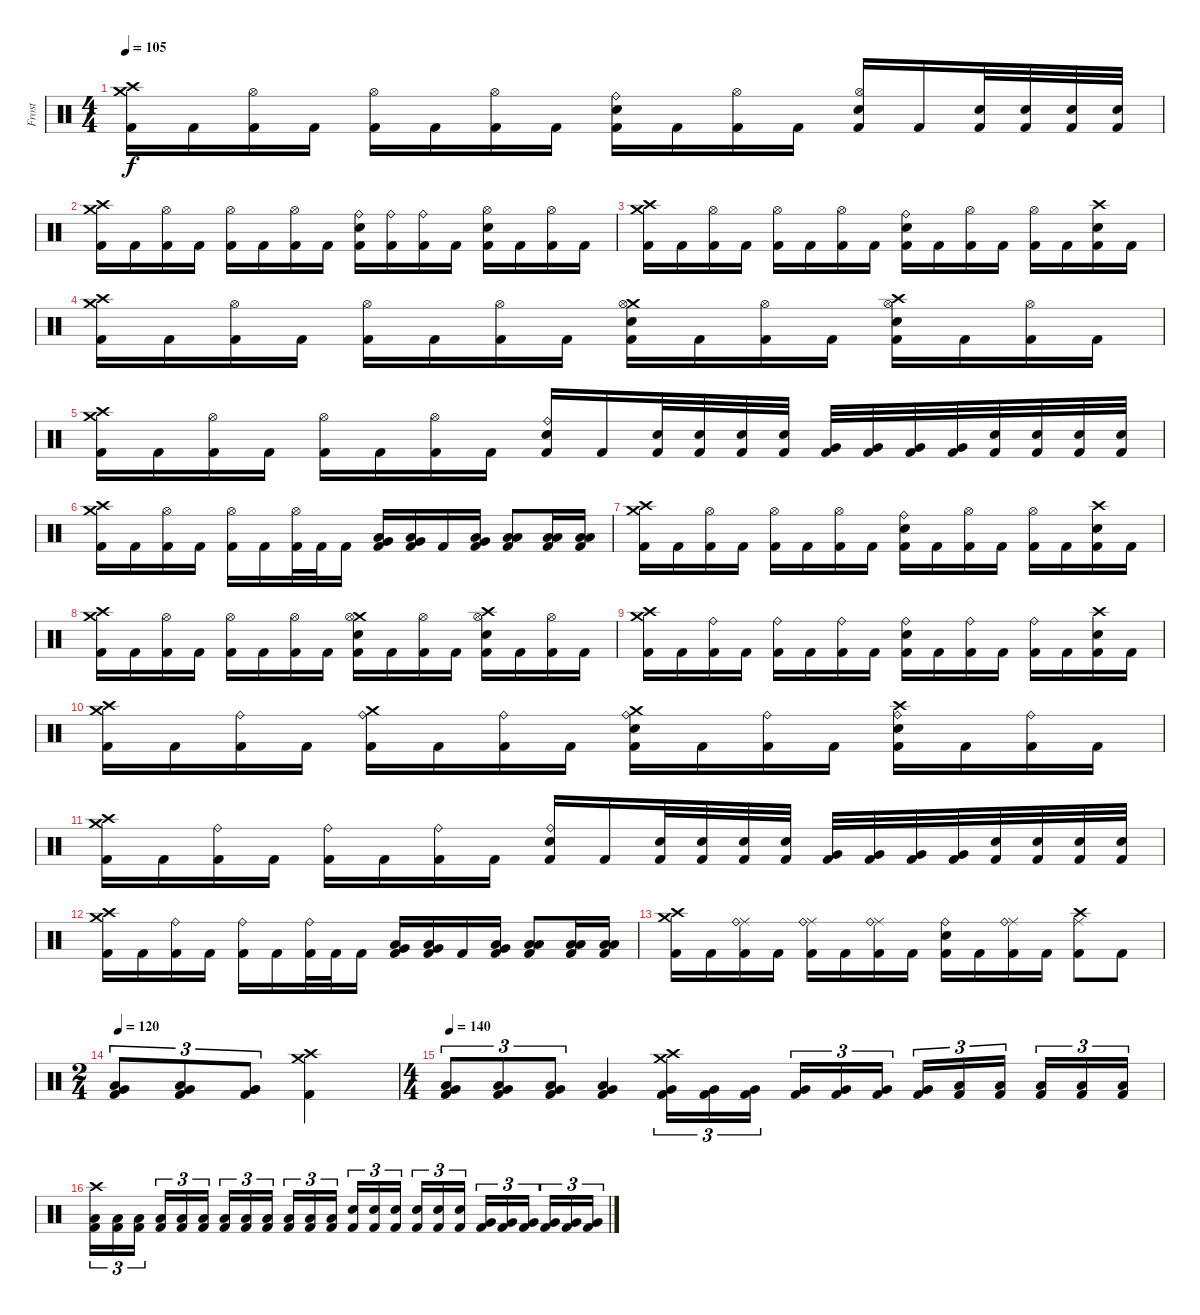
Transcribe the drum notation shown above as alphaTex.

\track ("Frost" "Frost") {instrument percussion}
\staff {score}
\articulation defaults
\ts (4 4)
\tempo 105
\clef neutral
\ks c
("Crash medium (hit)" "Crash high (hit)" "Kick (hit) 2").16{dy f} "Kick (hit) 2".16 ("Hi-Hat (open)" "Kick (hit) 2").16 "Kick (hit) 2".16 ("Hi-Hat (open)" "Kick (hit) 2").16 "Kick (hit) 2".16 ("Hi-Hat (open)" "Kick (hit) 2").16 "Kick (hit) 2".16 ("Ride (bell)" "Snare (hit) 2" "Kick (hit) 2").16 "Kick (hit) 2".16 ("Hi-Hat (open)" "Kick (hit) 2").16 "Kick (hit) 2".16 ("Hi-Hat (open)" "Snare (hit) 2" "Kick (hit) 2").16 "Kick (hit) 2".16 ("Snare (hit) 2" "Kick (hit) 2").32 ("Snare (hit) 2" "Kick (hit) 2").32 ("Snare (hit) 2" "Kick (hit) 2").32 ("Snare (hit) 2" "Kick (hit) 2").32 |
("Crash medium (hit)" "Crash high (hit)" "Kick (hit) 2").16 "Kick (hit) 2".16 ("Hi-Hat (open)" "Kick (hit) 2").16 "Kick (hit) 2".16 ("Hi-Hat (open)" "Kick (hit) 2").16 "Kick (hit) 2".16 ("Hi-Hat (open)" "Kick (hit) 2").16 "Kick (hit) 2".16 ("Ride (bell)" "Snare (hit) 2" "Kick (hit) 2").16 ("Ride (bell)" "Kick (hit) 2").16 ("Ride (bell)" "Kick (hit) 2").16 "Kick (hit) 2".16 ("Hi-Hat (open)" "Snare (hit) 2" "Kick (hit) 2").16 "Kick (hit) 2".16 ("Hi-Hat (open)" "Kick (hit) 2").16 "Kick (hit) 2".16 |
("Crash medium (hit)" "Crash high (hit)" "Kick (hit) 2").16 "Kick (hit) 2".16 ("Hi-Hat (open)" "Kick (hit) 2").16 "Kick (hit) 2".16 ("Hi-Hat (open)" "Kick (hit) 2").16 "Kick (hit) 2".16 ("Hi-Hat (open)" "Kick (hit) 2").16 "Kick (hit) 2".16 ("Ride (bell)" "Snare (hit) 2" "Kick (hit) 2").16 "Kick (hit) 2".16 ("Hi-Hat (open)" "Kick (hit) 2").16 "Kick (hit) 2".16 ("Hi-Hat (open)" "Kick (hit) 2").16 "Kick (hit) 2".16 ("Crash high (hit)" "Snare (hit) 2" "Kick (hit) 2").16 "Kick (hit) 2".16 |
("Crash medium (hit)" "Crash high (hit)" "Kick (hit) 2").16 "Kick (hit) 2".16 ("Hi-Hat (open)" "Kick (hit) 2").16 "Kick (hit) 2".16 ("Hi-Hat (open)" "Kick (hit) 2").16 "Kick (hit) 2".16 ("Hi-Hat (open)" "Kick (hit) 2").16 "Kick (hit) 2".16 ("Crash medium (hit)" "Hi-Hat (open)" "Snare (hit) 2" "Kick (hit) 2").16 "Kick (hit) 2".16 ("Hi-Hat (open)" "Kick (hit) 2").16 "Kick (hit) 2".16 ("Crash high (hit)" "Hi-Hat (open)" "Snare (hit) 2" "Kick (hit) 2").16 "Kick (hit) 2".16 ("Hi-Hat (open)" "Kick (hit) 2").16 "Kick (hit) 2".16 |
("Crash medium (hit)" "Crash high (hit)" "Kick (hit) 2").16 "Kick (hit) 2".16 ("Hi-Hat (open)" "Kick (hit) 2").16 "Kick (hit) 2".16 ("Hi-Hat (open)" "Kick (hit) 2").16 "Kick (hit) 2".16 ("Hi-Hat (open)" "Kick (hit) 2").16 "Kick (hit) 2".16 ("Ride (bell)" "Snare (hit) 2" "Kick (hit) 2").16 "Kick (hit) 2".16 ("Snare (hit) 2" "Kick (hit) 2").32 ("Snare (hit) 2" "Kick (hit) 2").32 ("Snare (hit) 2" "Kick (hit) 2").32 ("Snare (hit) 2" "Kick (hit) 2").32 ("Very Low Tom (hit)" "Kick (hit) 2").32 ("Very Low Tom (hit)" "Kick (hit) 2").32 ("Very Low Tom (hit)" "Kick (hit) 2").32 ("Very Low Tom (hit)" "Kick (hit) 2").32 ("Snare (hit) 2" "Kick (hit) 2").32 ("Snare (hit) 2" "Kick (hit) 2").32 ("Snare (hit) 2" "Kick (hit) 2").32 ("Snare (hit) 2" "Kick (hit) 2").32 |
("Crash medium (hit)" "Crash high (hit)" "Kick (hit) 2").16 "Kick (hit) 2".16 ("Hi-Hat (open)" "Kick (hit) 2").16 "Kick (hit) 2".16 ("Hi-Hat (open)" "Kick (hit) 2").16 "Kick (hit) 2".16 ("Hi-Hat (open)" "Kick (hit) 2").32 "Kick (hit) 2".32 "Kick (hit) 2".16 ("Very Low Tom (hit)" "Low Tom (hit)" "Kick (hit) 2").16 ("Very Low Tom (hit)" "Low Tom (hit)" "Kick (hit) 2").16 "Kick (hit) 2".16 ("Very Low Tom (hit)" "Low Floor Tom (hit)" "Kick (hit) 2").16 ("Low Floor Tom (hit)" "Low Floor Tom (hit)" "Kick (hit) 2").8 ("Low Floor Tom (hit)" "Low Floor Tom (hit)" "Kick (hit) 2").16 ("Low Floor Tom (hit)" "Low Floor Tom (hit)" "Kick (hit) 2").16 |
("Crash medium (hit)" "Crash high (hit)" "Kick (hit) 2").16 "Kick (hit) 2".16 ("Hi-Hat (open)" "Kick (hit) 2").16 "Kick (hit) 2".16 ("Hi-Hat (open)" "Kick (hit) 2").16 "Kick (hit) 2".16 ("Hi-Hat (open)" "Kick (hit) 2").16 "Kick (hit) 2".16 ("Ride (bell)" "Snare (hit) 2" "Kick (hit) 2").16 "Kick (hit) 2".16 ("Hi-Hat (open)" "Kick (hit) 2").16 "Kick (hit) 2".16 ("Hi-Hat (open)" "Kick (hit) 2").16 "Kick (hit) 2".16 ("Crash high (hit)" "Snare (hit) 2" "Kick (hit) 2").16 "Kick (hit) 2".16 |
("Crash medium (hit)" "Crash high (hit)" "Kick (hit) 2").16 "Kick (hit) 2".16 ("Hi-Hat (open)" "Kick (hit) 2").16 "Kick (hit) 2".16 ("Hi-Hat (open)" "Kick (hit) 2").16 "Kick (hit) 2".16 ("Hi-Hat (open)" "Kick (hit) 2").16 "Kick (hit) 2".16 ("Crash medium (hit)" "Hi-Hat (open)" "Snare (hit) 2" "Kick (hit) 2").16 "Kick (hit) 2".16 ("Hi-Hat (open)" "Kick (hit) 2").16 "Kick (hit) 2".16 ("Crash high (hit)" "Hi-Hat (open)" "Snare (hit) 2" "Kick (hit) 2").16 "Kick (hit) 2".16 ("Hi-Hat (open)" "Kick (hit) 2").16 "Kick (hit) 2".16 |
("Crash medium (hit)" "Crash high (hit)" "Kick (hit) 2").16 "Kick (hit) 2".16 ("Ride (bell)" "Kick (hit) 2").16 "Kick (hit) 2".16 ("Ride (bell)" "Kick (hit) 2").16 "Kick (hit) 2".16 ("Ride (bell)" "Kick (hit) 2").16 "Kick (hit) 2".16 ("Ride (bell)" "Snare (hit) 2" "Kick (hit) 2").16 "Kick (hit) 2".16 ("Ride (bell)" "Kick (hit) 2").16 "Kick (hit) 2".16 ("Ride (bell)" "Kick (hit) 2").16 "Kick (hit) 2".16 ("Crash high (hit)" "Snare (hit) 2" "Kick (hit) 2").16 "Kick (hit) 2".16 |
("Crash medium (hit)" "Crash high (hit)" "Kick (hit) 2").16 "Kick (hit) 2".16 ("Ride (bell)" "Kick (hit) 2").16 "Kick (hit) 2".16 ("Crash medium (hit)" "Ride (bell)" "Kick (hit) 2").16 "Kick (hit) 2".16 ("Ride (bell)" "Kick (hit) 2").16 "Kick (hit) 2".16 ("Crash medium (hit)" "Ride (bell)" "Snare (hit) 2" "Kick (hit) 2").16 "Kick (hit) 2".16 ("Ride (bell)" "Kick (hit) 2").16 "Kick (hit) 2".16 ("Crash high (hit)" "Ride (bell)" "Snare (hit) 2" "Kick (hit) 2").16 "Kick (hit) 2".16 ("Ride (bell)" "Kick (hit) 2").16 "Kick (hit) 2".16 |
("Crash medium (hit)" "Crash high (hit)" "Kick (hit) 2").16 "Kick (hit) 2".16 ("Ride (bell)" "Kick (hit) 2").16 "Kick (hit) 2".16 ("Ride (bell)" "Kick (hit) 2").16 "Kick (hit) 2".16 ("Ride (bell)" "Kick (hit) 2").16 "Kick (hit) 2".16 ("Ride (bell)" "Snare (hit) 2" "Kick (hit) 2").16 "Kick (hit) 2".16 ("Snare (hit) 2" "Kick (hit) 2").32 ("Snare (hit) 2" "Kick (hit) 2").32 ("Snare (hit) 2" "Kick (hit) 2").32 ("Snare (hit) 2" "Kick (hit) 2").32 ("Very Low Tom (hit)" "Kick (hit) 2").32 ("Very Low Tom (hit)" "Kick (hit) 2").32 ("Very Low Tom (hit)" "Kick (hit) 2").32 ("Very Low Tom (hit)" "Kick (hit) 2").32 ("Snare (hit) 2" "Kick (hit) 2").32 ("Snare (hit) 2" "Kick (hit) 2").32 ("Snare (hit) 2" "Kick (hit) 2").32 ("Snare (hit) 2" "Kick (hit) 2").32 |
("Crash medium (hit)" "Crash high (hit)" "Kick (hit) 2").16 "Kick (hit) 2".16 ("Ride (bell)" "Kick (hit) 2").16 "Kick (hit) 2".16 ("Ride (bell)" "Kick (hit) 2").16 "Kick (hit) 2".16 ("Ride (bell)" "Kick (hit) 2").32 "Kick (hit) 2".32 "Kick (hit) 2".16 ("Very Low Tom (hit)" "Low Tom (hit)" "Kick (hit) 2").16 ("Very Low Tom (hit)" "Low Tom (hit)" "Kick (hit) 2").16 "Kick (hit) 2".16 ("Very Low Tom (hit)" "Low Floor Tom (hit)" "Kick (hit) 2").16 ("Low Floor Tom (hit)" "Low Floor Tom (hit)" "Kick (hit) 2").8 ("Low Floor Tom (hit)" "Low Floor Tom (hit)" "Kick (hit) 2").16 ("Low Floor Tom (hit)" "Low Floor Tom (hit)" "Kick (hit) 2").16 |
("Crash medium (hit)" "Crash high (hit)" "Kick (hit) 2").16 "Kick (hit) 2".16 ("Ride (middle)" "Ride (bell)" "Kick (hit) 2").16 "Kick (hit) 2".16 ("Ride (middle)" "Ride (bell)" "Kick (hit) 2").16 "Kick (hit) 2".16 ("Ride (middle)" "Ride (bell)" "Kick (hit) 2").16 "Kick (hit) 2".16 ("Ride (bell)" "Snare (hit) 2" "Kick (hit) 2").16 "Kick (hit) 2".16 ("Ride (middle)" "Ride (bell)" "Kick (hit) 2").16 "Kick (hit) 2".16 ("Crash high (hit)" "Ride (middle)" "Kick (hit) 2").8 "Kick (hit) 2".8 |
\ts (2 4)
\tempo 120
("Very Low Tom (hit)" "Low Tom (hit)" "Kick (hit) 2").8{tu (3 2)} ("Very Low Tom (hit)" "Low Tom (hit)" "Kick (hit) 2").8{tu (3 2)} ("Very Low Tom (hit)" "Very Low Tom (hit)" "Kick (hit) 2").8{tu (3 2)} ("Crash high (hit)" "Crash medium (hit)" "Kick (hit) 2").4 |
\ts (4 4)
\tempo 140
("Very Low Tom (hit)" "Low Tom (hit)" "Kick (hit) 2").8{tu (3 2)} ("Very Low Tom (hit)" "Low Tom (hit)" "Kick (hit) 2").8{tu (3 2)} ("Low Floor Tom (hit)" "Very Low Tom (hit)" "Kick (hit) 2").8{tu (3 2)} ("Low Floor Tom (hit)" "Very Low Tom (hit)" "Kick (hit) 2").4 ("Crash high (hit)" "Crash medium (hit)" "Very Low Tom (hit)" "Kick (hit) 2").16{tu (3 2)} ("Very Low Tom (hit)" "Kick (hit) 2").16{tu (3 2)} ("Very Low Tom (hit)" "Kick (hit) 2").16{tu (3 2) beam splitsecondary} ("Very Low Tom (hit)" "Kick (hit) 2").16{tu (3 2)} ("Very Low Tom (hit)" "Kick (hit) 2").16{tu (3 2)} ("Very Low Tom (hit)" "Kick (hit) 2").16{tu (3 2)} ("Very Low Tom (hit)" "Kick (hit) 2").16{tu (3 2)} ("Low Floor Tom (hit)" "Kick (hit) 2").16{tu (3 2)} ("Low Floor Tom (hit)" "Kick (hit) 2").16{tu (3 2) beam splitsecondary} ("Low Floor Tom (hit)" "Kick (hit) 2").16{tu (3 2)} ("Low Floor Tom (hit)" "Kick (hit) 2").16{tu (3 2)} ("Low Floor Tom (hit)" "Kick (hit) 2").16{tu (3 2)} |
("Crash high (hit)" "Low Tom (hit)" "Kick (hit) 2").16{tu (3 2)} ("Low Tom (hit)" "Kick (hit) 2").16{tu (3 2)} ("Low Tom (hit)" "Kick (hit) 2").16{tu (3 2) beam splitsecondary} ("Low Tom (hit)" "Kick (hit) 2").16{tu (3 2)} ("Low Tom (hit)" "Kick (hit) 2").16{tu (3 2)} ("Low Tom (hit)" "Kick (hit) 2").16{tu (3 2)} ("Low Tom (hit)" "Kick (hit) 2").16{tu (3 2)} ("Low Floor Tom (hit)" "Kick (hit) 2").16{tu (3 2)} ("Low Floor Tom (hit)" "Kick (hit) 2").16{tu (3 2) beam splitsecondary} ("Low Floor Tom (hit)" "Kick (hit) 2").16{tu (3 2)} ("Low Floor Tom (hit)" "Kick (hit) 2").16{tu (3 2)} ("Low Floor Tom (hit)" "Kick (hit) 2").16{tu (3 2)} ("Snare (hit) 2" "Kick (hit) 2").16{tu (3 2)} ("Snare (hit) 2" "Kick (hit) 2").16{tu (3 2)} ("Snare (hit) 2" "Kick (hit) 2").16{tu (3 2) beam splitsecondary} ("Snare (hit) 2" "Kick (hit) 2").16{tu (3 2)} ("Snare (hit) 2" "Kick (hit) 2").16{tu (3 2)} ("Snare (hit) 2" "Kick (hit) 2").16{tu (3 2)} ("Very Low Tom (hit)" "Kick (hit) 2").16{tu (3 2)} ("Very Low Tom (hit)" "Kick (hit) 2").16{tu (3 2)} ("Very Low Tom (hit)" "Kick (hit) 2").16{tu (3 2) beam splitsecondary} ("Very Low Tom (hit)" "Kick (hit) 2").16{tu (3 2)} ("Very Low Tom (hit)" "Kick (hit) 2").16{tu (3 2)} ("Very Low Tom (hit)" "Kick (hit) 2").16{tu (3 2)}
